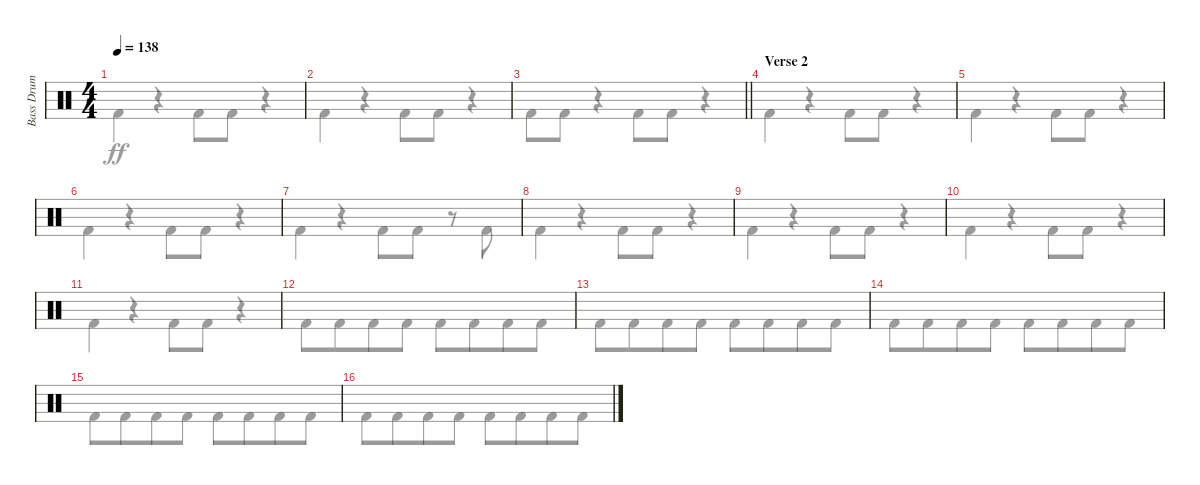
\track ("Bass Drum" "Bass Drum") {instrument percussion}
\staff {score}
\articulation defaults
\voice
\ts (4 4)
\tempo 138
\clef neutral
\ks c
|
|
\barLineRight lightlight
|
\section ("" "Verse 2")
|
|
|
|
|
|
|
|
|
|
|
|
\voice
\clef neutral
\ks c "Kick (hit) 2".4{dy ff}
r.4 "Kick (hit) 2".8 "Kick (hit) 2".8 r.4 |
"Kick (hit) 2".4 r.4 "Kick (hit) 2".8 "Kick (hit) 2".8 r.4 |
\barLineRight lightlight "Kick (hit) 2".8 "Kick (hit) 2".8
r.4 "Kick (hit) 2".8 "Kick (hit) 2".8 r.4 |
"Kick (hit) 2".4 r.4 "Kick (hit) 2".8 "Kick (hit) 2".8 r.4 |
"Kick (hit) 2".4 r.4 "Kick (hit) 2".8 "Kick (hit) 2".8 r.4 |
"Kick (hit) 2".4 r.4 "Kick (hit) 2".8 "Kick (hit) 2".8 r.4 |
"Kick (hit) 2".4 r.4 "Kick (hit) 2".8 "Kick (hit) 2".8 r.8 "Kick (hit) 2".8 |
"Kick (hit) 2".4 r.4 "Kick (hit) 2".8 "Kick (hit) 2".8 r.4 |
"Kick (hit) 2".4 r.4 "Kick (hit) 2".8 "Kick (hit) 2".8 r.4 |
"Kick (hit) 2".4 r.4 "Kick (hit) 2".8 "Kick (hit) 2".8 r.4 |
"Kick (hit) 2".4 r.4 "Kick (hit) 2".8 "Kick (hit) 2".8 r.4 |
"Kick (hit) 2".8 "Kick (hit) 2".8{beam merge} "Kick (hit) 2".8 "Kick (hit) 2".8 "Kick (hit) 2".8 "Kick (hit) 2".8{beam merge} "Kick (hit) 2".8 "Kick (hit) 2".8 |
"Kick (hit) 2".8 "Kick (hit) 2".8{beam merge} "Kick (hit) 2".8 "Kick (hit) 2".8 "Kick (hit) 2".8 "Kick (hit) 2".8{beam merge} "Kick (hit) 2".8 "Kick (hit) 2".8 |
"Kick (hit) 2".8 "Kick (hit) 2".8{beam merge} "Kick (hit) 2".8 "Kick (hit) 2".8 "Kick (hit) 2".8 "Kick (hit) 2".8{beam merge} "Kick (hit) 2".8 "Kick (hit) 2".8 |
"Kick (hit) 2".8 "Kick (hit) 2".8{beam merge} "Kick (hit) 2".8 "Kick (hit) 2".8 "Kick (hit) 2".8 "Kick (hit) 2".8{beam merge} "Kick (hit) 2".8 "Kick (hit) 2".8 |
"Kick (hit) 2".8 "Kick (hit) 2".8{beam merge} "Kick (hit) 2".8 "Kick (hit) 2".8 "Kick (hit) 2".8 "Kick (hit) 2".8{beam merge} "Kick (hit) 2".8 "Kick (hit) 2".8
